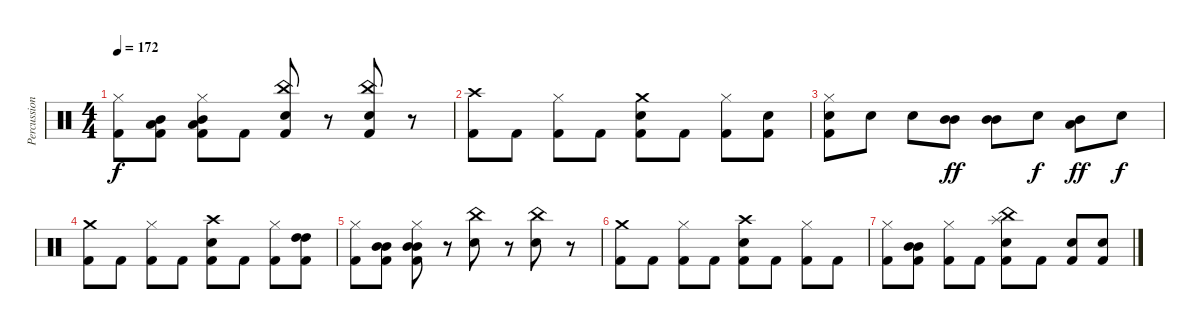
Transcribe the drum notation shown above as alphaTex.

\track ("Percussions" "Percussion") {instrument percussion}
\staff {score}
\articulation defaults
\ts (4 4)
\tempo 172
\clef neutral
\ks c
("Hi-Hat (closed)" "Kick (hit) 2").8{dy f volume 6} ("Mid Tom (hit)" "Low Tom (hit)" "Kick (hit) 2").8 ("Hi-Hat (closed)" "Mid Tom (hit)" "Low Tom (hit)" "Kick (hit) 2").8 "Kick (hit) 2".8 ("China (hit)" "Snare (hit) 2" "Kick (hit) 2").8 r.8 ("China (hit)" "Snare (hit) 2" "Kick (hit) 2").8 r.8 |
("Crash high (hit)" "Kick (hit) 2").8{volume 5} "Kick (hit) 2".8 ("Hi-Hat (closed)" "Kick (hit) 2").8 "Kick (hit) 2".8 ("Crash medium (hit)" "Snare (hit) 2" "Kick (hit) 2").8 "Kick (hit) 2".8 ("Hi-Hat (closed)" "Kick (hit) 2").8 ("Snare (hit) 2" "Kick (hit) 2").8 |
("Hi-Hat (closed)" "Snare (hit) 2" "Kick (hit) 2").8{volume 4} "Snare (hit) 2".8 "Snare (hit) 2".8 ("Mid Tom (hit)" "Mid Tom (hit)").8{dy ff} ("Mid Tom (hit)" "Mid Tom (hit)").8 "Snare (hit) 2".8{dy f} ("Mid Tom (hit)" "Low Tom (hit)").8{dy ff} "Snare (hit) 2".8{dy f} |
("Crash medium (hit)" "Kick (hit) 2").8{volume 3} "Kick (hit) 2".8 ("Hi-Hat (closed)" "Kick (hit) 2").8 "Kick (hit) 2".8 ("Crash high (hit)" "Snare (hit) 2" "Kick (hit) 2").8 "Kick (hit) 2".8 ("Hi-Hat (closed)" "Kick (hit) 2").8 ("High Tom (hit)" "High Tom (hit)" "Kick (hit) 2").8 |
("Hi-Hat (closed)" "Kick (hit) 2").8{volume 2} ("Mid Tom (hit)" "Mid Tom (hit)" "Kick (hit) 2").8 ("Hi-Hat (closed)" "Mid Tom (hit)" "Mid Tom (hit)" "Kick (hit) 2").8 r.8 ("China (hit)" "Snare (hit) 2").8 r.8 ("China (hit)" "Snare (hit) 2").8 r.8 |
("Crash medium (hit)" "Kick (hit) 2").8{volume 1} "Kick (hit) 2".8 ("Hi-Hat (closed)" "Kick (hit) 2").8 "Kick (hit) 2".8 ("Crash high (hit)" "Snare (hit) 2" "Kick (hit) 2").8 "Kick (hit) 2".8 ("Hi-Hat (closed)" "Kick (hit) 2").8 "Kick (hit) 2".8 |
("Hi-Hat (closed)" "Kick (hit) 2").8{volume 0} ("Mid Tom (hit)" "Mid Tom (hit)" "Kick (hit) 2").8 ("Hi-Hat (closed)" "Kick (hit) 2").8 "Kick (hit) 2".8 ("China (hit)" "Splash (hit)" "Snare (hit) 2" "Kick (hit) 2").8 "Kick (hit) 2".8 ("Snare (hit) 2" "Kick (hit) 2").8 ("Snare (hit) 2" "Kick (hit) 2").8
